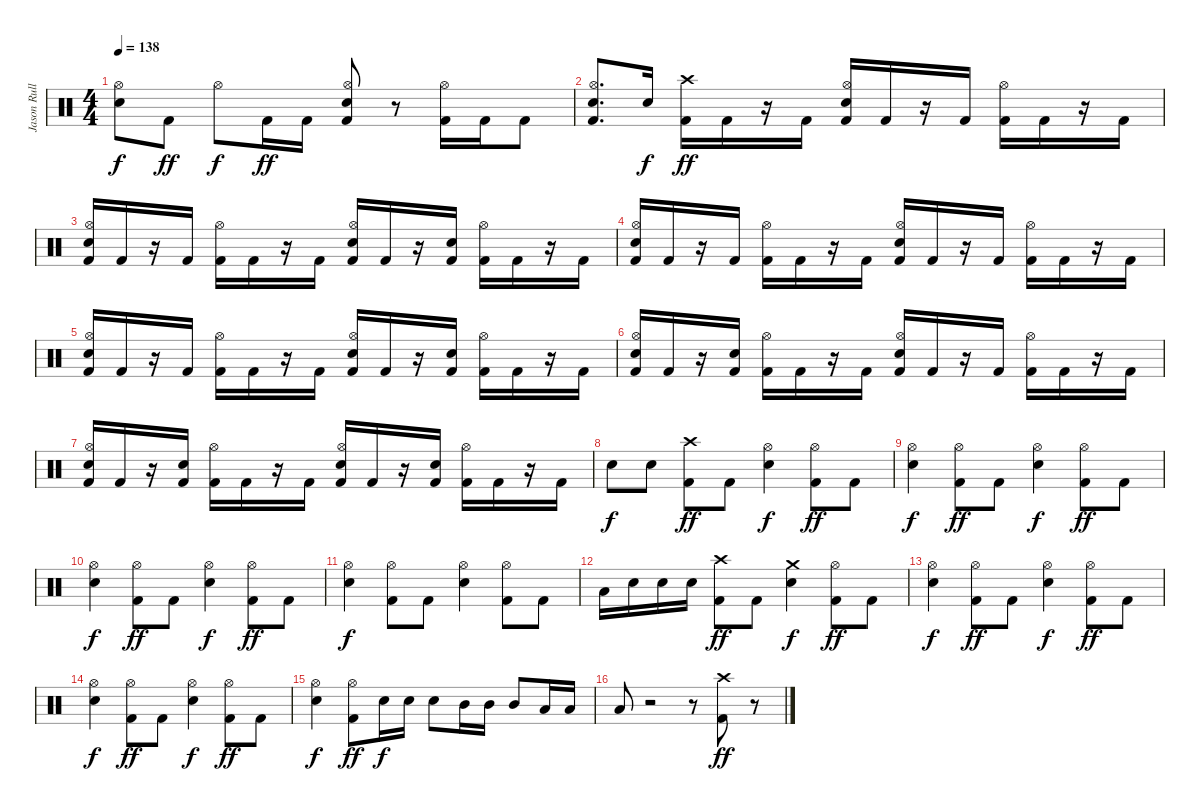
\track ("Jason Rullo" "Jason Rull") {instrument percussion}
\staff {score}
\articulation defaults
\ts (4 4)
\tempo 138
\clef neutral
\ks c
("Electric Snare (hit)" "Hi-Hat (open)").8{dy f} "Kick (hit) 2".8{dy ff} "Hi-Hat (open)".8{dy f} "Kick (hit) 2".16{dy ff} "Kick (hit) 2".16 ("Kick (hit) 2" "Electric Snare (hit)" "Hi-Hat (open)").8 r.8 ("Kick (hit) 2" "Hi-Hat (open)").16 "Kick (hit) 2".16 "Kick (hit) 2".8 |
("Kick (hit) 2" "Electric Snare (hit)" "Hi-Hat (open)").8{d} "Electric Snare (hit)".16{dy f} ("Kick (hit) 2" "Crash high (hit)").16{dy ff} "Kick (hit) 2".16 r.16 "Kick (hit) 2".16 ("Kick (hit) 2" "Electric Snare (hit)" "Hi-Hat (open)").16 "Kick (hit) 2".16 r.16 "Kick (hit) 2".16 ("Kick (hit) 2" "Hi-Hat (open)").16 "Kick (hit) 2".16 r.16 "Kick (hit) 2".16 |
("Kick (hit) 2" "Electric Snare (hit)" "Hi-Hat (open)").16 "Kick (hit) 2".16 r.16 "Kick (hit) 2".16 ("Kick (hit) 2" "Hi-Hat (open)").16 "Kick (hit) 2".16 r.16 "Kick (hit) 2".16 ("Kick (hit) 2" "Electric Snare (hit)" "Hi-Hat (open)").16 "Kick (hit) 2".16 r.16 ("Kick (hit) 2" "Electric Snare (hit)").16 ("Kick (hit) 2" "Hi-Hat (open)").16 "Kick (hit) 2".16 r.16 "Kick (hit) 2".16 |
("Kick (hit) 2" "Electric Snare (hit)" "Hi-Hat (open)").16 "Kick (hit) 2".16 r.16 "Kick (hit) 2".16 ("Kick (hit) 2" "Hi-Hat (open)").16 "Kick (hit) 2".16 r.16 "Kick (hit) 2".16 ("Kick (hit) 2" "Electric Snare (hit)" "Hi-Hat (open)").16 "Kick (hit) 2".16 r.16 "Kick (hit) 2".16 ("Kick (hit) 2" "Hi-Hat (open)").16 "Kick (hit) 2".16 r.16 "Kick (hit) 2".16 |
("Kick (hit) 2" "Electric Snare (hit)" "Hi-Hat (open)").16 "Kick (hit) 2".16 r.16 "Kick (hit) 2".16 ("Kick (hit) 2" "Hi-Hat (open)").16 "Kick (hit) 2".16 r.16 "Kick (hit) 2".16 ("Kick (hit) 2" "Electric Snare (hit)" "Hi-Hat (open)").16 "Kick (hit) 2".16 r.16 ("Kick (hit) 2" "Electric Snare (hit)").16 ("Kick (hit) 2" "Hi-Hat (open)").16 "Kick (hit) 2".16 r.16 "Kick (hit) 2".16 |
("Kick (hit) 2" "Electric Snare (hit)" "Hi-Hat (open)").16 "Kick (hit) 2".16 r.16 ("Kick (hit) 2" "Electric Snare (hit)").16 ("Kick (hit) 2" "Hi-Hat (open)").16 "Kick (hit) 2".16 r.16 "Kick (hit) 2".16 ("Kick (hit) 2" "Electric Snare (hit)" "Hi-Hat (open)").16 "Kick (hit) 2".16 r.16 "Kick (hit) 2".16 ("Kick (hit) 2" "Hi-Hat (open)").16 "Kick (hit) 2".16 r.16 "Kick (hit) 2".16 |
("Kick (hit) 2" "Electric Snare (hit)" "Hi-Hat (open)").16 "Kick (hit) 2".16 r.16 ("Kick (hit) 2" "Electric Snare (hit)").16 ("Kick (hit) 2" "Hi-Hat (open)").16 "Kick (hit) 2".16 r.16 "Kick (hit) 2".16 ("Kick (hit) 2" "Electric Snare (hit)" "Hi-Hat (open)").16 "Kick (hit) 2".16 r.16 ("Kick (hit) 2" "Electric Snare (hit)").16 ("Kick (hit) 2" "Hi-Hat (open)").16 "Kick (hit) 2".16 r.16 "Kick (hit) 2".16 |
"Electric Snare (hit)".8{dy f} "Electric Snare (hit)".8 ("Kick (hit) 2" "Crash high (hit)").8{dy ff} "Kick (hit) 2".8 ("Electric Snare (hit)" "Hi-Hat (open)").4{dy f} ("Kick (hit) 2" "Hi-Hat (open)").8{dy ff} "Kick (hit) 2".8 |
("Electric Snare (hit)" "Hi-Hat (open)").4{dy f} ("Kick (hit) 2" "Hi-Hat (open)").8{dy ff} "Kick (hit) 2".8 ("Electric Snare (hit)" "Hi-Hat (open)").4{dy f} ("Kick (hit) 2" "Hi-Hat (open)").8{dy ff} "Kick (hit) 2".8 |
("Electric Snare (hit)" "Hi-Hat (open)").4{dy f} ("Kick (hit) 2" "Hi-Hat (open)").8{dy ff} "Kick (hit) 2".8 ("Electric Snare (hit)" "Hi-Hat (open)").4{dy f} ("Kick (hit) 2" "Hi-Hat (open)").8{dy ff} "Kick (hit) 2".8 |
("Electric Snare (hit)" "Hi-Hat (open)").4{dy f} ("Kick (hit) 2" "Hi-Hat (open)").8 "Kick (hit) 2".8 ("Electric Snare (hit)" "Hi-Hat (open)").4 ("Kick (hit) 2" "Hi-Hat (open)").8 "Kick (hit) 2".8 |
"Low Tom (hit)".16 "Electric Snare (hit)".16 "Electric Snare (hit)".16 "Electric Snare (hit)".16 ("Kick (hit) 2" "Crash high (hit)").8{dy ff} "Kick (hit) 2".8 ("Electric Snare (hit)" "Crash medium (hit)").4{dy f} ("Kick (hit) 2" "Hi-Hat (open)").8{dy ff} "Kick (hit) 2".8 |
("Electric Snare (hit)" "Hi-Hat (open)").4{dy f} ("Kick (hit) 2" "Hi-Hat (open)").8{dy ff} "Kick (hit) 2".8 ("Electric Snare (hit)" "Hi-Hat (open)").4{dy f} ("Kick (hit) 2" "Hi-Hat (open)").8{dy ff} "Kick (hit) 2".8 |
("Electric Snare (hit)" "Hi-Hat (open)").4{dy f} ("Kick (hit) 2" "Hi-Hat (open)").8{dy ff} "Kick (hit) 2".8 ("Electric Snare (hit)" "Hi-Hat (open)").4{dy f} ("Kick (hit) 2" "Hi-Hat (open)").8{dy ff} "Kick (hit) 2".8 |
("Electric Snare (hit)" "Hi-Hat (open)").4{dy f} ("Kick (hit) 2" "Hi-Hat (open)").8{dy ff} "Electric Snare (hit)".16{dy f} "Electric Snare (hit)".16 "Electric Snare (hit)".8 "Mid Tom (hit)".16 "Mid Tom (hit)".16 "Mid Tom (hit)".8 "Low Tom (hit)".16 "Low Tom (hit)".16 |
"Low Tom (hit)".8 r.2 r.8 ("Kick (hit) 2" "Crash high (hit)").8{dy ff} r.8
